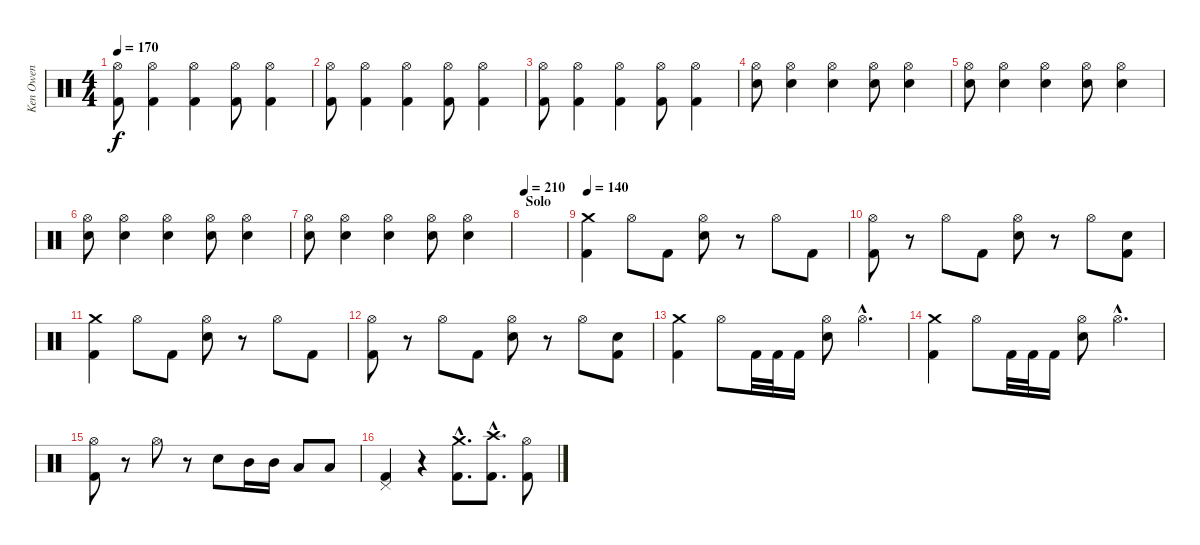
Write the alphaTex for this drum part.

\track ("Ken Owen" "Ken Owen") {instrument percussion}
\staff {score}
\articulation defaults
\ts (4 4)
\tempo 170
\clef neutral
\ks c
("Hi-Hat (open)" "Kick (hit) 2").8{dy f} ("Hi-Hat (open)" "Kick (hit) 2").4 ("Hi-Hat (open)" "Kick (hit) 2").4 ("Hi-Hat (open)" "Kick (hit) 2").8 ("Hi-Hat (open)" "Kick (hit) 2").4 |
("Hi-Hat (open)" "Kick (hit) 2").8 ("Hi-Hat (open)" "Kick (hit) 2").4 ("Hi-Hat (open)" "Kick (hit) 2").4 ("Hi-Hat (open)" "Kick (hit) 2").8 ("Hi-Hat (open)" "Kick (hit) 2").4 |
("Hi-Hat (open)" "Kick (hit) 2").8 ("Hi-Hat (open)" "Kick (hit) 2").4 ("Hi-Hat (open)" "Kick (hit) 2").4 ("Hi-Hat (open)" "Kick (hit) 2").8 ("Hi-Hat (open)" "Kick (hit) 2").4 |
("Hi-Hat (open)" "Electric Snare (hit)").8 ("Hi-Hat (open)" "Electric Snare (hit)").4 ("Hi-Hat (open)" "Electric Snare (hit)").4 ("Hi-Hat (open)" "Electric Snare (hit)").8 ("Hi-Hat (open)" "Electric Snare (hit)").4 |
("Hi-Hat (open)" "Electric Snare (hit)").8 ("Hi-Hat (open)" "Electric Snare (hit)").4 ("Hi-Hat (open)" "Electric Snare (hit)").4 ("Hi-Hat (open)" "Electric Snare (hit)").8 ("Hi-Hat (open)" "Electric Snare (hit)").4 |
("Hi-Hat (open)" "Electric Snare (hit)").8 ("Hi-Hat (open)" "Electric Snare (hit)").4 ("Hi-Hat (open)" "Electric Snare (hit)").4 ("Hi-Hat (open)" "Electric Snare (hit)").8 ("Hi-Hat (open)" "Electric Snare (hit)").4 |
("Hi-Hat (open)" "Electric Snare (hit)").8 ("Hi-Hat (open)" "Electric Snare (hit)").4 ("Hi-Hat (open)" "Electric Snare (hit)").4 ("Hi-Hat (open)" "Electric Snare (hit)").8 ("Hi-Hat (open)" "Electric Snare (hit)").4 |
\section ("" "Solo")
\tempo 210
|
\tempo 140
("Crash medium (hit)" "Kick (hit) 2").4 "Hi-Hat (open)".8 "Kick (hit) 2".8 ("Hi-Hat (open)" "Electric Snare (hit)").8 r.8 "Hi-Hat (open)".8 "Kick (hit) 2".8 |
("Hi-Hat (open)" "Kick (hit) 2").8 r.8 "Hi-Hat (open)".8 "Kick (hit) 2".8 ("Hi-Hat (open)" "Electric Snare (hit)").8 r.8 "Hi-Hat (open)".8 ("Electric Snare (hit)" "Kick (hit) 2").8 |
("Crash medium (hit)" "Kick (hit) 2").4 "Hi-Hat (open)".8 "Kick (hit) 2".8 ("Hi-Hat (open)" "Electric Snare (hit)").8 r.8 "Hi-Hat (open)".8 "Kick (hit) 2".8 |
("Hi-Hat (open)" "Kick (hit) 2").8 r.8 "Hi-Hat (open)".8 "Kick (hit) 2".8 ("Hi-Hat (open)" "Electric Snare (hit)").8 r.8 "Hi-Hat (open)".8 ("Electric Snare (hit)" "Kick (hit) 2").8 |
("Crash medium (hit)" "Kick (hit) 2").4 "Hi-Hat (open)".8 "Kick (hit) 2".32 "Kick (hit) 2".32 "Kick (hit) 2".16 ("Hi-Hat (open)" "Electric Snare (hit)").8 "Hi-Hat (open)"{hac}.4{d} |
("Crash medium (hit)" "Kick (hit) 2").4 "Hi-Hat (open)".8 "Kick (hit) 2".32 "Kick (hit) 2".32 "Kick (hit) 2".16 ("Hi-Hat (open)" "Electric Snare (hit)").8 "Hi-Hat (open)"{hac}.4{d} |
("Hi-Hat (open)" "Kick (hit) 2").8 r.8 "Hi-Hat (open)".8 r.8 "Electric Snare (hit)".8 "Mid Tom (hit)".16 "Mid Tom (hit)".16 "Low Floor Tom (hit)".8 "Low Floor Tom (hit)".8 |
("Pedal Hi-Hat (hit)" "Kick (hit) 2").4 r.4 ("Crash medium (hit)"{hac} "Kick (hit) 2"{hac}).8{d} ("Crash high (hit)"{hac} "Kick (hit) 2"{hac}).8{d} ("Hi-Hat (open)" "Kick (hit) 2").8
